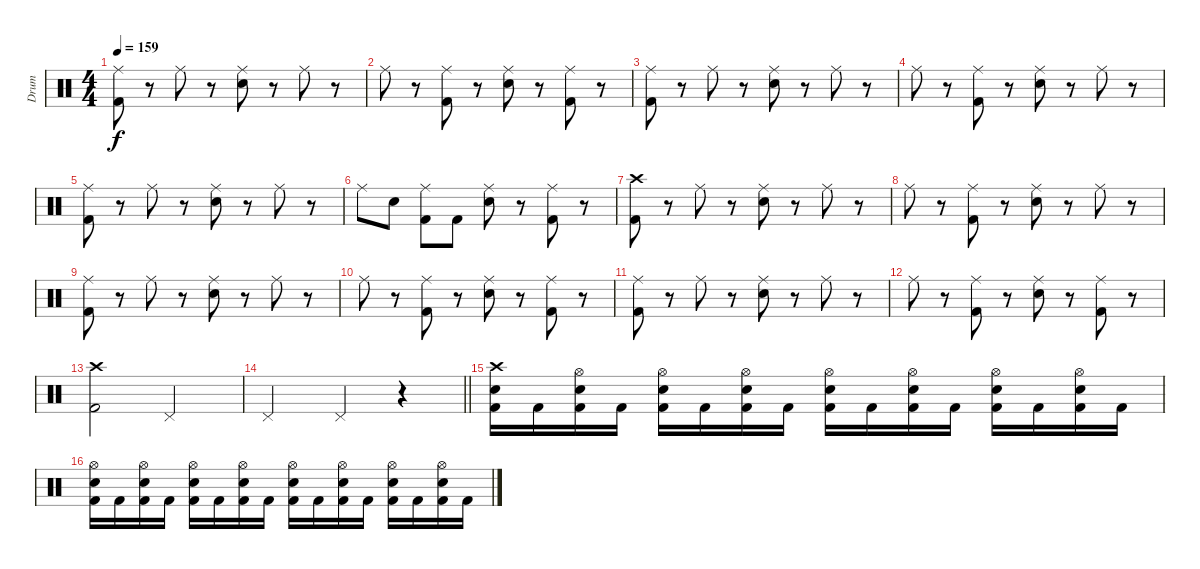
\track ("Drum" "Drum") {instrument percussion}
\staff {score}
\articulation defaults
\ts (4 4)
\tempo 159
\clef neutral
\ks c
("Ride (middle)" "Kick (hit) 2").8{dy f} r.8 "Ride (middle)".8 r.8 ("Ride (middle)" "Snare (hit) 2").8 r.8 "Ride (middle)".8 r.8 |
"Ride (middle)".8 r.8 ("Ride (middle)" "Kick (hit) 2").8 r.8 ("Ride (middle)" "Snare (hit) 2").8 r.8 ("Ride (middle)" "Kick (hit) 2").8 r.8 |
("Ride (middle)" "Kick (hit) 2").8 r.8 "Ride (middle)".8 r.8 ("Ride (middle)" "Snare (hit) 2").8 r.8 "Ride (middle)".8 r.8 |
"Ride (middle)".8 r.8 ("Ride (middle)" "Kick (hit) 2").8 r.8 ("Ride (middle)" "Snare (hit) 2").8 r.8 "Ride (middle)".8 r.8 |
("Ride (middle)" "Kick (hit) 2").8 r.8 "Ride (middle)".8 r.8 ("Ride (middle)" "Snare (hit) 2").8 r.8 "Ride (middle)".8 r.8 |
"Ride (middle)".8 "Snare (hit) 2".8 ("Ride (middle)" "Kick (hit) 2").8 "Kick (hit) 2".8 ("Ride (middle)" "Snare (hit) 2").8 r.8 ("Ride (middle)" "Kick (hit) 2").8 r.8 |
("Crash high (hit)" "Kick (hit) 2").8 r.8 "Ride (middle)".8 r.8 ("Ride (middle)" "Snare (hit) 2").8 r.8 "Ride (middle)".8 r.8 |
"Ride (middle)".8 r.8 ("Ride (middle)" "Kick (hit) 2").8 r.8 ("Ride (middle)" "Snare (hit) 2").8 r.8 "Ride (middle)".8 r.8 |
("Ride (middle)" "Kick (hit) 2").8 r.8 "Ride (middle)".8 r.8 ("Ride (middle)" "Snare (hit) 2").8 r.8 "Ride (middle)".8 r.8 |
"Ride (middle)".8 r.8 ("Ride (middle)" "Kick (hit) 2").8 r.8 ("Ride (middle)" "Snare (hit) 2").8 r.8 ("Ride (middle)" "Kick (hit) 2").8 r.8 |
("Ride (middle)" "Kick (hit) 2").8 r.8 "Ride (middle)".8 r.8 ("Ride (middle)" "Snare (hit) 2").8 r.8 "Ride (middle)".8 r.8 |
"Ride (middle)".8 r.8 ("Ride (middle)" "Kick (hit) 2").8 r.8 ("Ride (middle)" "Snare (hit) 2").8 r.8 ("Ride (middle)" "Kick (hit) 2").8 r.8 |
("Crash high (hit)" "Kick (hit) 2").2 "Pedal Hi-Hat (hit)".2 |
\barLineRight lightlight "Pedal Hi-Hat (hit)".2 "Pedal Hi-Hat (hit)".4
r.4 |
\section ("" "")
("Crash high (hit)" "Snare (hit) 2" "Kick (hit) 2").16 "Kick (hit) 2".16 ("Hi-Hat (open)" "Snare (hit) 2" "Kick (hit) 2").16 "Kick (hit) 2".16 ("Hi-Hat (open)" "Snare (hit) 2" "Kick (hit) 2").16 "Kick (hit) 2".16 ("Hi-Hat (open)" "Snare (hit) 2" "Kick (hit) 2").16 "Kick (hit) 2".16 ("Hi-Hat (open)" "Snare (hit) 2" "Kick (hit) 2").16 "Kick (hit) 2".16 ("Hi-Hat (open)" "Snare (hit) 2" "Kick (hit) 2").16 "Kick (hit) 2".16 ("Hi-Hat (open)" "Snare (hit) 2" "Kick (hit) 2").16 "Kick (hit) 2".16 ("Hi-Hat (open)" "Snare (hit) 2" "Kick (hit) 2").16 "Kick (hit) 2".16 |
("Hi-Hat (open)" "Snare (hit) 2" "Kick (hit) 2").16 "Kick (hit) 2".16 ("Hi-Hat (open)" "Snare (hit) 2" "Kick (hit) 2").16 "Kick (hit) 2".16 ("Hi-Hat (open)" "Snare (hit) 2" "Kick (hit) 2").16 "Kick (hit) 2".16 ("Hi-Hat (open)" "Snare (hit) 2" "Kick (hit) 2").16 "Kick (hit) 2".16 ("Hi-Hat (open)" "Snare (hit) 2" "Kick (hit) 2").16 "Kick (hit) 2".16 ("Hi-Hat (open)" "Snare (hit) 2" "Kick (hit) 2").16 "Kick (hit) 2".16 ("Hi-Hat (open)" "Snare (hit) 2" "Kick (hit) 2").16 "Kick (hit) 2".16 ("Hi-Hat (open)" "Snare (hit) 2" "Kick (hit) 2").16 "Kick (hit) 2".16
